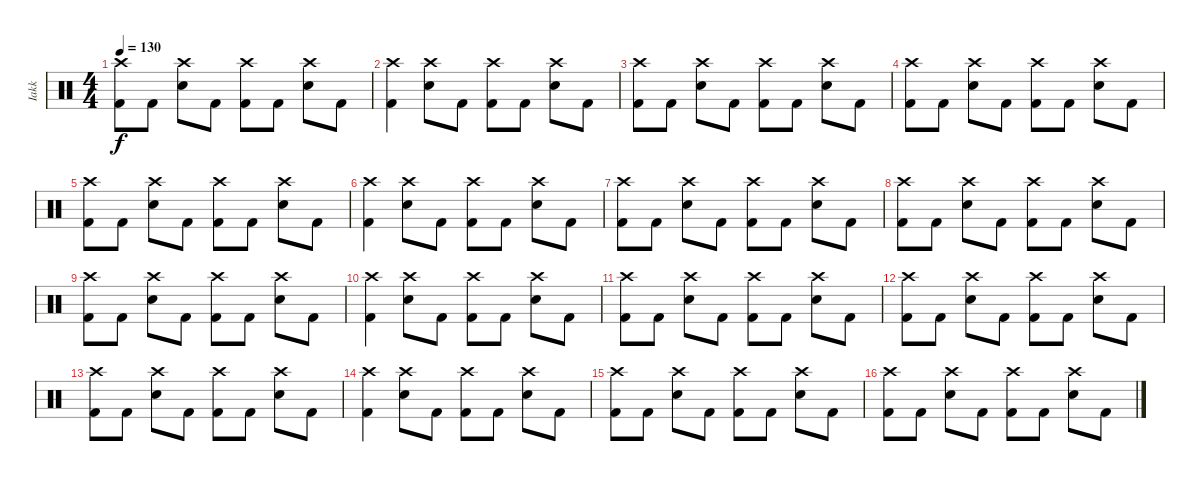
\track ("Iakk" "Iakk") {instrument percussion}
\staff {score}
\articulation defaults
\ts (4 4)
\tempo 130
\clef neutral
\ks c
("Crash high (hit)" "Kick (hit) 2").8{dy f} "Kick (hit) 2".8 ("Crash high (hit)" "Electric Snare (hit)").8 "Kick (hit) 2".8 ("Crash high (hit)" "Kick (hit) 2").8 "Kick (hit) 2".8 ("Crash high (hit)" "Electric Snare (hit)").8 "Kick (hit) 2".8 |
("Crash high (hit)" "Kick (hit) 2").4 ("Crash high (hit)" "Electric Snare (hit)").8 "Kick (hit) 2".8 ("Crash high (hit)" "Kick (hit) 2").8 "Kick (hit) 2".8 ("Crash high (hit)" "Electric Snare (hit)").8 "Kick (hit) 2".8 |
("Crash high (hit)" "Kick (hit) 2").8 "Kick (hit) 2".8 ("Crash high (hit)" "Electric Snare (hit)").8 "Kick (hit) 2".8 ("Crash high (hit)" "Kick (hit) 2").8 "Kick (hit) 2".8 ("Crash high (hit)" "Electric Snare (hit)").8 "Kick (hit) 2".8 |
("Crash high (hit)" "Kick (hit) 2").8 "Kick (hit) 2".8 ("Crash high (hit)" "Electric Snare (hit)").8 "Kick (hit) 2".8 ("Crash high (hit)" "Kick (hit) 2").8 "Kick (hit) 2".8 ("Crash high (hit)" "Electric Snare (hit)").8 "Kick (hit) 2".8 |
("Crash high (hit)" "Kick (hit) 2").8 "Kick (hit) 2".8 ("Crash high (hit)" "Electric Snare (hit)").8 "Kick (hit) 2".8 ("Crash high (hit)" "Kick (hit) 2").8 "Kick (hit) 2".8 ("Crash high (hit)" "Electric Snare (hit)").8 "Kick (hit) 2".8 |
("Crash high (hit)" "Kick (hit) 2").4 ("Crash high (hit)" "Electric Snare (hit)").8 "Kick (hit) 2".8 ("Crash high (hit)" "Kick (hit) 2").8 "Kick (hit) 2".8 ("Crash high (hit)" "Electric Snare (hit)").8 "Kick (hit) 2".8 |
("Crash high (hit)" "Kick (hit) 2").8 "Kick (hit) 2".8 ("Crash high (hit)" "Electric Snare (hit)").8 "Kick (hit) 2".8 ("Crash high (hit)" "Kick (hit) 2").8 "Kick (hit) 2".8 ("Crash high (hit)" "Electric Snare (hit)").8 "Kick (hit) 2".8 |
("Crash high (hit)" "Kick (hit) 2").8 "Kick (hit) 2".8 ("Crash high (hit)" "Electric Snare (hit)").8 "Kick (hit) 2".8 ("Crash high (hit)" "Kick (hit) 2").8 "Kick (hit) 2".8 ("Crash high (hit)" "Electric Snare (hit)").8 "Kick (hit) 2".8 |
("Crash high (hit)" "Kick (hit) 2").8 "Kick (hit) 2".8 ("Crash high (hit)" "Electric Snare (hit)").8 "Kick (hit) 2".8 ("Crash high (hit)" "Kick (hit) 2").8 "Kick (hit) 2".8 ("Crash high (hit)" "Electric Snare (hit)").8 "Kick (hit) 2".8 |
("Crash high (hit)" "Kick (hit) 2").4 ("Crash high (hit)" "Electric Snare (hit)").8 "Kick (hit) 2".8 ("Crash high (hit)" "Kick (hit) 2").8 "Kick (hit) 2".8 ("Crash high (hit)" "Electric Snare (hit)").8 "Kick (hit) 2".8 |
("Crash high (hit)" "Kick (hit) 2").8 "Kick (hit) 2".8 ("Crash high (hit)" "Electric Snare (hit)").8 "Kick (hit) 2".8 ("Crash high (hit)" "Kick (hit) 2").8 "Kick (hit) 2".8 ("Crash high (hit)" "Electric Snare (hit)").8 "Kick (hit) 2".8 |
("Crash high (hit)" "Kick (hit) 2").8 "Kick (hit) 2".8 ("Crash high (hit)" "Electric Snare (hit)").8 "Kick (hit) 2".8 ("Crash high (hit)" "Kick (hit) 2").8 "Kick (hit) 2".8 ("Crash high (hit)" "Electric Snare (hit)").8 "Kick (hit) 2".8 |
("Crash high (hit)" "Kick (hit) 2").8 "Kick (hit) 2".8 ("Crash high (hit)" "Electric Snare (hit)").8 "Kick (hit) 2".8 ("Crash high (hit)" "Kick (hit) 2").8 "Kick (hit) 2".8 ("Crash high (hit)" "Electric Snare (hit)").8 "Kick (hit) 2".8 |
("Crash high (hit)" "Kick (hit) 2").4 ("Crash high (hit)" "Electric Snare (hit)").8 "Kick (hit) 2".8 ("Crash high (hit)" "Kick (hit) 2").8 "Kick (hit) 2".8 ("Crash high (hit)" "Electric Snare (hit)").8 "Kick (hit) 2".8 |
("Crash high (hit)" "Kick (hit) 2").8 "Kick (hit) 2".8 ("Crash high (hit)" "Electric Snare (hit)").8 "Kick (hit) 2".8 ("Crash high (hit)" "Kick (hit) 2").8 "Kick (hit) 2".8 ("Crash high (hit)" "Electric Snare (hit)").8 "Kick (hit) 2".8 |
("Crash high (hit)" "Kick (hit) 2").8 "Kick (hit) 2".8 ("Crash high (hit)" "Electric Snare (hit)").8 "Kick (hit) 2".8 ("Crash high (hit)" "Kick (hit) 2").8 "Kick (hit) 2".8 ("Crash high (hit)" "Electric Snare (hit)").8 "Kick (hit) 2".8
